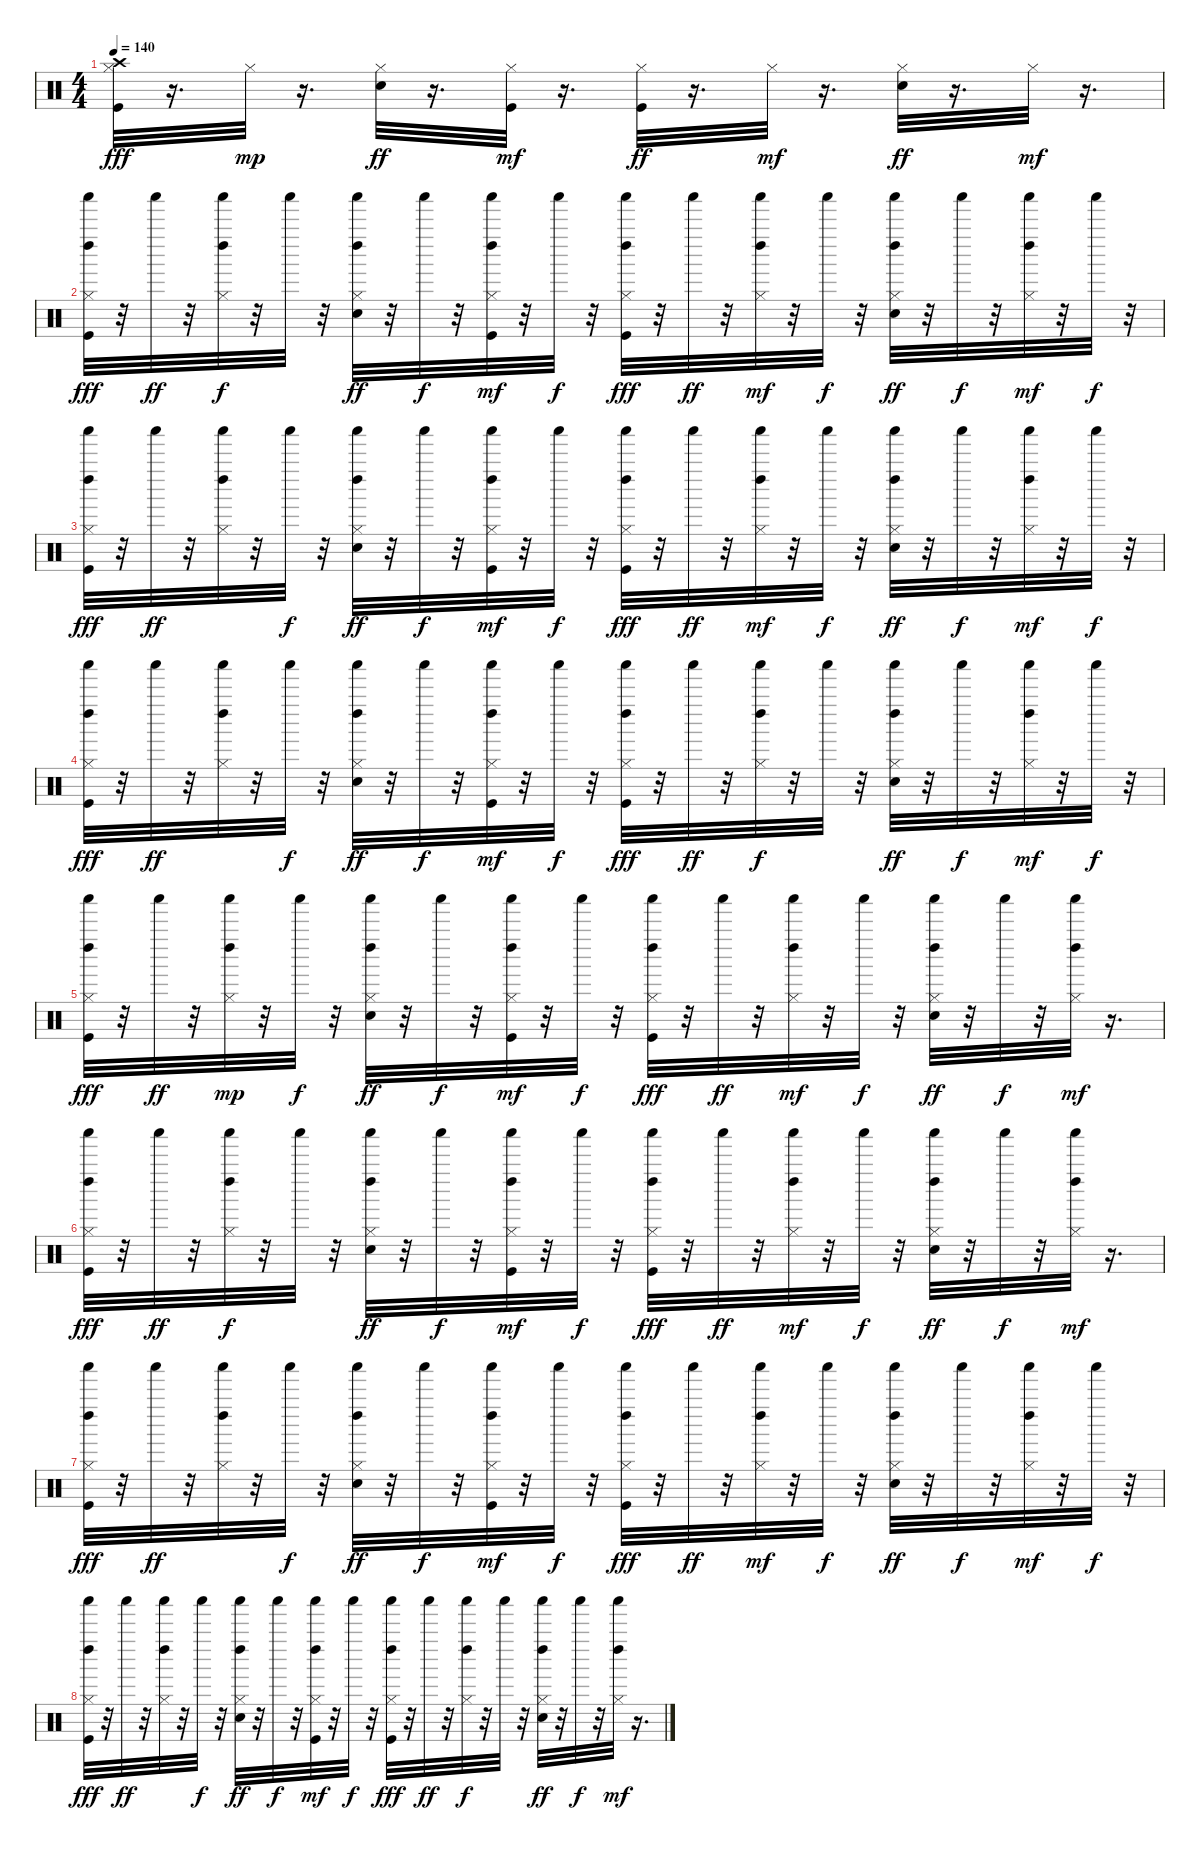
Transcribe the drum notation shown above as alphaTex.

\track "" {instrument percussion}
\staff {score}
\articulation defaults
\ts (4 4)
\tempo 140
\clef neutral
\ks c
("Kick (hit)" "Hi-Hat (closed)" "Crash high (hit)").32{dy fff} r.16{d} "Hi-Hat (closed)".32{dy mp} r.16{d} ("Electric Snare (hit)" "Hi-Hat (closed)").32{dy ff} r.16{d} ("Kick (hit)" "Hi-Hat (closed)").32{dy mf} r.16{d} ("Kick (hit)" "Hi-Hat (closed)").32{dy ff} r.16{d} "Hi-Hat (closed)".32{dy mf} r.16{d} ("Electric Snare (hit)" "Hi-Hat (closed)").32{dy ff} r.16{d} "Hi-Hat (closed)".32{dy mf} r.16{d} |
("Kick (hit)" "Hi-Hat (closed)" "Left Maraca (hit)" "Shaker (hit)").32{dy fff} r.32 "Shaker (hit)".32{dy ff} r.32 ("Hi-Hat (closed)" "Left Maraca (hit)" "Shaker (hit)").32{dy f} r.32 "Shaker (hit)".32 r.32 ("Electric Snare (hit)" "Hi-Hat (closed)" "Left Maraca (hit)" "Shaker (hit)").32{dy ff} r.32 "Shaker (hit)".32{dy f} r.32 ("Kick (hit)" "Hi-Hat (closed)" "Left Maraca (hit)" "Shaker (hit)").32{dy mf} r.32 "Shaker (hit)".32{dy f} r.32 ("Kick (hit)" "Hi-Hat (closed)" "Left Maraca (hit)" "Shaker (hit)").32{dy fff} r.32 "Shaker (hit)".32{dy ff} r.32 ("Hi-Hat (closed)" "Left Maraca (hit)" "Shaker (hit)").32{dy mf} r.32 "Shaker (hit)".32{dy f} r.32 ("Electric Snare (hit)" "Hi-Hat (closed)" "Left Maraca (hit)" "Shaker (hit)").32{dy ff} r.32 "Shaker (hit)".32{dy f} r.32 ("Hi-Hat (closed)" "Left Maraca (hit)" "Shaker (hit)").32{dy mf} r.32 "Shaker (hit)".32{dy f} r.32 |
("Kick (hit)" "Hi-Hat (closed)" "Left Maraca (hit)" "Shaker (hit)").32{dy fff} r.32 "Shaker (hit)".32{dy ff} r.32 ("Hi-Hat (closed)" "Left Maraca (hit)" "Shaker (hit)").32 r.32 "Shaker (hit)".32{dy f} r.32 ("Electric Snare (hit)" "Hi-Hat (closed)" "Left Maraca (hit)" "Shaker (hit)").32{dy ff} r.32 "Shaker (hit)".32{dy f} r.32 ("Kick (hit)" "Hi-Hat (closed)" "Left Maraca (hit)" "Shaker (hit)").32{dy mf} r.32 "Shaker (hit)".32{dy f} r.32 ("Kick (hit)" "Hi-Hat (closed)" "Left Maraca (hit)" "Shaker (hit)").32{dy fff} r.32 "Shaker (hit)".32{dy ff} r.32 ("Hi-Hat (closed)" "Left Maraca (hit)" "Shaker (hit)").32{dy mf} r.32 "Shaker (hit)".32{dy f} r.32 ("Electric Snare (hit)" "Hi-Hat (closed)" "Left Maraca (hit)" "Shaker (hit)").32{dy ff} r.32 "Shaker (hit)".32{dy f} r.32 ("Hi-Hat (closed)" "Left Maraca (hit)" "Shaker (hit)").32{dy mf} r.32 "Shaker (hit)".32{dy f} r.32 |
("Kick (hit)" "Hi-Hat (closed)" "Left Maraca (hit)" "Shaker (hit)").32{dy fff} r.32 "Shaker (hit)".32{dy ff} r.32 ("Hi-Hat (closed)" "Left Maraca (hit)" "Shaker (hit)").32 r.32 "Shaker (hit)".32{dy f} r.32 ("Electric Snare (hit)" "Hi-Hat (closed)" "Left Maraca (hit)" "Shaker (hit)").32{dy ff} r.32 "Shaker (hit)".32{dy f} r.32 ("Kick (hit)" "Hi-Hat (closed)" "Left Maraca (hit)" "Shaker (hit)").32{dy mf} r.32 "Shaker (hit)".32{dy f} r.32 ("Kick (hit)" "Hi-Hat (closed)" "Left Maraca (hit)" "Shaker (hit)").32{dy fff} r.32 "Shaker (hit)".32{dy ff} r.32 ("Hi-Hat (closed)" "Left Maraca (hit)" "Shaker (hit)").32{dy f} r.32 "Shaker (hit)".32 r.32 ("Electric Snare (hit)" "Hi-Hat (closed)" "Left Maraca (hit)" "Shaker (hit)").32{dy ff} r.32 "Shaker (hit)".32{dy f} r.32 ("Hi-Hat (closed)" "Left Maraca (hit)" "Shaker (hit)").32{dy mf} r.32 "Shaker (hit)".32{dy f} r.32 |
("Kick (hit)" "Hi-Hat (closed)" "Left Maraca (hit)" "Shaker (hit)").32{dy fff} r.32 "Shaker (hit)".32{dy ff} r.32 ("Hi-Hat (closed)" "Left Maraca (hit)" "Shaker (hit)").32{dy mp} r.32 "Shaker (hit)".32{dy f} r.32 ("Electric Snare (hit)" "Hi-Hat (closed)" "Left Maraca (hit)" "Shaker (hit)").32{dy ff} r.32 "Shaker (hit)".32{dy f} r.32 ("Kick (hit)" "Hi-Hat (closed)" "Left Maraca (hit)" "Shaker (hit)").32{dy mf} r.32 "Shaker (hit)".32{dy f} r.32 ("Kick (hit)" "Hi-Hat (closed)" "Left Maraca (hit)" "Shaker (hit)").32{dy fff} r.32 "Shaker (hit)".32{dy ff} r.32 ("Hi-Hat (closed)" "Left Maraca (hit)" "Shaker (hit)").32{dy mf} r.32 "Shaker (hit)".32{dy f} r.32 ("Electric Snare (hit)" "Hi-Hat (closed)" "Left Maraca (hit)" "Shaker (hit)").32{dy ff} r.32 "Shaker (hit)".32{dy f} r.32 ("Hi-Hat (closed)" "Left Maraca (hit)" "Shaker (hit)").32{dy mf} r.16{d} |
("Kick (hit)" "Hi-Hat (closed)" "Left Maraca (hit)" "Shaker (hit)").32{dy fff} r.32 "Shaker (hit)".32{dy ff} r.32 ("Hi-Hat (closed)" "Left Maraca (hit)" "Shaker (hit)").32{dy f} r.32 "Shaker (hit)".32 r.32 ("Electric Snare (hit)" "Hi-Hat (closed)" "Left Maraca (hit)" "Shaker (hit)").32{dy ff} r.32 "Shaker (hit)".32{dy f} r.32 ("Kick (hit)" "Hi-Hat (closed)" "Left Maraca (hit)" "Shaker (hit)").32{dy mf} r.32 "Shaker (hit)".32{dy f} r.32 ("Kick (hit)" "Hi-Hat (closed)" "Left Maraca (hit)" "Shaker (hit)").32{dy fff} r.32 "Shaker (hit)".32{dy ff} r.32 ("Hi-Hat (closed)" "Left Maraca (hit)" "Shaker (hit)").32{dy mf} r.32 "Shaker (hit)".32{dy f} r.32 ("Electric Snare (hit)" "Hi-Hat (closed)" "Left Maraca (hit)" "Shaker (hit)").32{dy ff} r.32 "Shaker (hit)".32{dy f} r.32 ("Hi-Hat (closed)" "Left Maraca (hit)" "Shaker (hit)").32{dy mf} r.16{d} |
("Kick (hit)" "Hi-Hat (closed)" "Left Maraca (hit)" "Shaker (hit)").32{dy fff} r.32 "Shaker (hit)".32{dy ff} r.32 ("Hi-Hat (closed)" "Left Maraca (hit)" "Shaker (hit)").32 r.32 "Shaker (hit)".32{dy f} r.32 ("Electric Snare (hit)" "Hi-Hat (closed)" "Left Maraca (hit)" "Shaker (hit)").32{dy ff} r.32 "Shaker (hit)".32{dy f} r.32 ("Kick (hit)" "Hi-Hat (closed)" "Left Maraca (hit)" "Shaker (hit)").32{dy mf} r.32 "Shaker (hit)".32{dy f} r.32 ("Kick (hit)" "Hi-Hat (closed)" "Left Maraca (hit)" "Shaker (hit)").32{dy fff} r.32 "Shaker (hit)".32{dy ff} r.32 ("Hi-Hat (closed)" "Left Maraca (hit)" "Shaker (hit)").32{dy mf} r.32 "Shaker (hit)".32{dy f} r.32 ("Electric Snare (hit)" "Hi-Hat (closed)" "Left Maraca (hit)" "Shaker (hit)").32{dy ff} r.32 "Shaker (hit)".32{dy f} r.32 ("Hi-Hat (closed)" "Left Maraca (hit)" "Shaker (hit)").32{dy mf} r.32 "Shaker (hit)".32{dy f} r.32 |
("Kick (hit)" "Hi-Hat (closed)" "Left Maraca (hit)" "Shaker (hit)").32{dy fff} r.32 "Shaker (hit)".32{dy ff} r.32 ("Hi-Hat (closed)" "Left Maraca (hit)" "Shaker (hit)").32 r.32 "Shaker (hit)".32{dy f} r.32 ("Electric Snare (hit)" "Hi-Hat (closed)" "Left Maraca (hit)" "Shaker (hit)").32{dy ff} r.32 "Shaker (hit)".32{dy f} r.32 ("Kick (hit)" "Hi-Hat (closed)" "Left Maraca (hit)" "Shaker (hit)").32{dy mf} r.32 "Shaker (hit)".32{dy f} r.32 ("Kick (hit)" "Hi-Hat (closed)" "Left Maraca (hit)" "Shaker (hit)").32{dy fff} r.32 "Shaker (hit)".32{dy ff} r.32 ("Hi-Hat (closed)" "Left Maraca (hit)" "Shaker (hit)").32{dy f} r.32 "Shaker (hit)".32 r.32 ("Electric Snare (hit)" "Hi-Hat (closed)" "Left Maraca (hit)" "Shaker (hit)").32{dy ff} r.32 "Shaker (hit)".32{dy f} r.32 ("Hi-Hat (closed)" "Left Maraca (hit)" "Shaker (hit)").32{dy mf} r.16{d}
